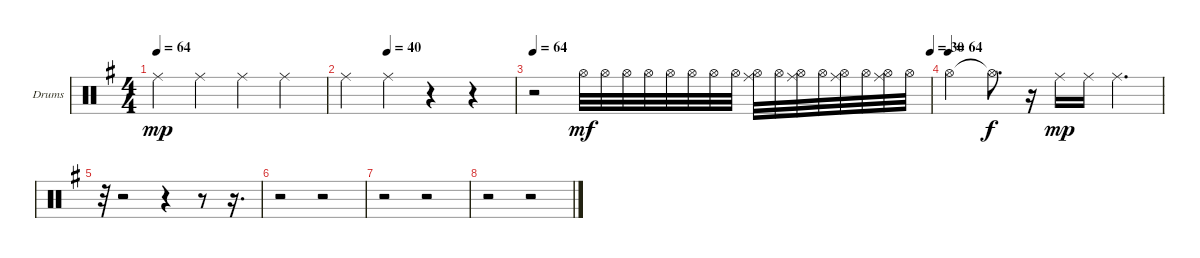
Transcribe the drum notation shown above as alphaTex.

\bracketExtendMode groupsimilarinstruments
\firstSystemTrackNameOrientation horizontal
\otherSystemsTrackNameOrientation horizontal
\track ("Барабаны" "Drums") {instrument percussion}
\staff {score}
\articulation defaults
\ts (4 4)
\tempo 64
\clef neutral
\ks eminor "Ride (middle)".4{dy mp} "Ride (middle)".4 "Ride (middle)".4 "Ride (middle)".4
|
\tempo (40 0.25)
"Ride (middle)".4 "Ride (middle)".4 r.4 r.4 |
\tempo 64
\tempo (30 1)
r.2 "Hi-Hat (open)".32{dy mf} "Hi-Hat (open)".32 "Hi-Hat (open)".32 "Hi-Hat (open)".32 "Hi-Hat (open)".32 "Hi-Hat (open)".32 "Hi-Hat (open)".32 "Hi-Hat (open)".32 ("Hi-Hat (open)" "Ride (middle)").32 "Hi-Hat (open)".32 ("Hi-Hat (open)" "Ride (middle)").32 "Hi-Hat (open)".32 ("Hi-Hat (open)" "Ride (middle)").32 "Hi-Hat (open)".32 ("Hi-Hat (open)" "Ride (middle)").32 "Hi-Hat (open)".32 |
\tempo (64)
"Hi-Hat (open)".4 "Hi-Hat (open)"{t}.8{d dy f} r.16 "Ride (middle)".16{dy mp} "Ride (middle)".16 "Ride (middle)".4{d} |
r.32 r.2 r.4 r.8 r.16{d} |
r.2 r.2 |
r.2 r.2 |
r.2 r.2
